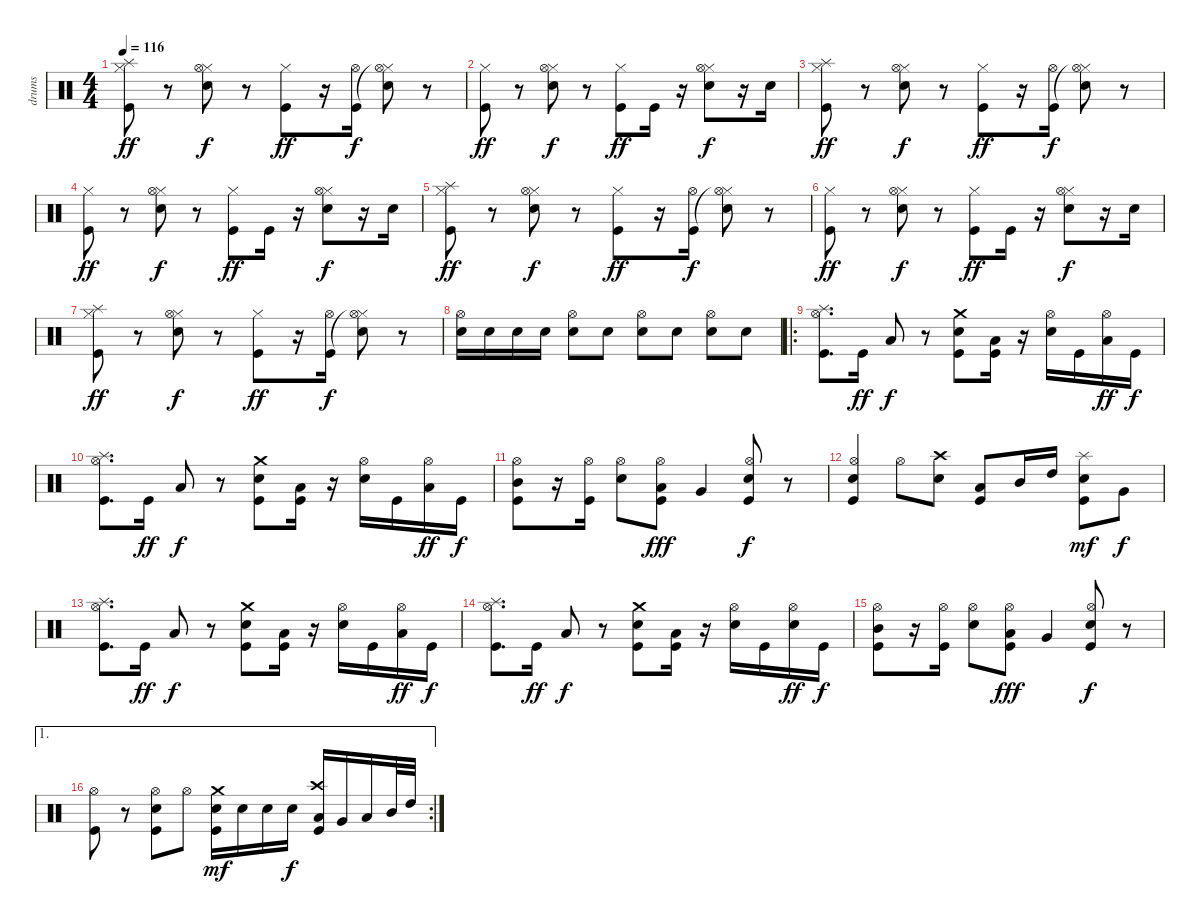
\track ("drums" "drums") {instrument percussion}
\staff {score}
\articulation defaults
\ts (4 4)
\tempo 116
\clef neutral
\ks c
("Hi-Hat (closed)" "Splash (hit)" "Kick (hit)").8{dy ff} r.8 ("Hi-Hat (closed)" "Hi-Hat (open)" "Electric Snare (hit)").8{dy f} r.8 ("Hi-Hat (closed)" "Kick (hit)").8{dy ff} r.16 ("Hi-Hat (open)" "Kick (hit)").16{dy f} ("Hi-Hat (closed)" "Hi-Hat (open)"{t} "Electric Snare (hit)").8 r.8 |
("Hi-Hat (closed)" "Kick (hit)").8{dy ff} r.8 ("Hi-Hat (closed)" "Hi-Hat (open)" "Electric Snare (hit)").8{dy f} r.8 ("Hi-Hat (closed)" "Kick (hit)").8{dy ff} "Kick (hit)".16 r.16 ("Hi-Hat (closed)" "Hi-Hat (open)" "Electric Snare (hit)").8{dy f} r.16 "Electric Snare (hit)".16 |
("Hi-Hat (closed)" "Splash (hit)" "Kick (hit)").8{dy ff} r.8 ("Hi-Hat (closed)" "Hi-Hat (open)" "Electric Snare (hit)").8{dy f} r.8 ("Hi-Hat (closed)" "Kick (hit)").8{dy ff} r.16 ("Hi-Hat (open)" "Kick (hit)").16{dy f} ("Hi-Hat (closed)" "Hi-Hat (open)"{t} "Electric Snare (hit)").8 r.8 |
("Hi-Hat (closed)" "Kick (hit)").8{dy ff} r.8 ("Hi-Hat (closed)" "Hi-Hat (open)" "Electric Snare (hit)").8{dy f} r.8 ("Hi-Hat (closed)" "Kick (hit)").8{dy ff} "Kick (hit)".16 r.16 ("Hi-Hat (closed)" "Hi-Hat (open)" "Electric Snare (hit)").8{dy f} r.16 "Electric Snare (hit)".16 |
("Hi-Hat (closed)" "Splash (hit)" "Kick (hit)").8{dy ff} r.8 ("Hi-Hat (closed)" "Hi-Hat (open)" "Electric Snare (hit)").8{dy f} r.8 ("Hi-Hat (closed)" "Kick (hit)").8{dy ff} r.16 ("Hi-Hat (open)" "Kick (hit)").16{dy f} ("Hi-Hat (closed)" "Hi-Hat (open)"{t} "Electric Snare (hit)").8 r.8 |
("Hi-Hat (closed)" "Kick (hit)").8{dy ff} r.8 ("Hi-Hat (closed)" "Hi-Hat (open)" "Electric Snare (hit)").8{dy f} r.8 ("Hi-Hat (closed)" "Kick (hit)").8{dy ff} "Kick (hit)".16 r.16 ("Hi-Hat (closed)" "Hi-Hat (open)" "Electric Snare (hit)").8{dy f} r.16 "Electric Snare (hit)".16 |
("Hi-Hat (closed)" "Splash (hit)" "Kick (hit)").8{dy ff} r.8 ("Hi-Hat (closed)" "Hi-Hat (open)" "Electric Snare (hit)").8{dy f} r.8 ("Hi-Hat (closed)" "Kick (hit)").8{dy ff} r.16 ("Hi-Hat (open)" "Kick (hit)").16{dy f} ("Hi-Hat (closed)" "Hi-Hat (open)"{t} "Electric Snare (hit)").8 r.8 |
("Hi-Hat (open)" "Electric Snare (hit)").16 "Electric Snare (hit)".16 "Electric Snare (hit)".16 "Electric Snare (hit)".16 ("Hi-Hat (open)" "Electric Snare (hit)").8 "Electric Snare (hit)".8 ("Hi-Hat (open)" "Electric Snare (hit)").8 "Electric Snare (hit)".8 ("Hi-Hat (open)" "Electric Snare (hit)").8 "Electric Snare (hit)".8 |
\ro
("Hi-Hat (open)" "Splash (hit)" "Kick (hit)").8{d} "Kick (hit)".16{dy ff} "Low Tom (hit)".8{dy f} r.8 ("Crash medium (hit)" "Electric Snare (hit)" "Kick (hit)").8 ("Low Tom (hit)" "Kick (hit)").16 r.16 ("Hi-Hat (open)" "Electric Snare (hit)").16 "Kick (hit)".16 ("Hi-Hat (open)" "Low Tom (hit)").16{dy ff} "Kick (hit)".16{dy f} |
("Hi-Hat (open)" "Splash (hit)" "Kick (hit)").8{d} "Kick (hit)".16{dy ff} "Low Tom (hit)".8{dy f} r.8 ("Crash medium (hit)" "Electric Snare (hit)" "Kick (hit)").8 ("Low Tom (hit)" "Kick (hit)").16 r.16 ("Hi-Hat (open)" "Electric Snare (hit)").16 "Kick (hit)".16 ("Hi-Hat (open)" "Low Tom (hit)").16{dy ff} "Kick (hit)".16{dy f} |
("Hi-Hat (open)" "Mid Tom (hit)" "Kick (hit)").8 r.16 ("Hi-Hat (open)" "Kick (hit)").16 ("Hi-Hat (open)" "Electric Snare (hit)").8 ("Hi-Hat (open)" "Low Tom (hit)" "Kick (hit)").8{dy fff} "Very Low Tom (hit)".4 ("Hi-Hat (open)" "Electric Snare (hit)" "Kick (hit)").8{dy f} r.8 |
("Electric Snare (hit)" "Hi-Hat (open)" "Kick (hit)").4 "Hi-Hat (open)".8 ("Crash high (hit)" "Electric Snare (hit)").8 ("Low Tom (hit)" "Kick (hit)").8 "Mid Tom (hit)".16 "High Tom (hit)".16 ("Splash (hit)" "Electric Snare (hit)" "Kick (hit)").8{dy mf} "Very Low Tom (hit)".8{dy f} |
("Hi-Hat (open)" "Splash (hit)" "Kick (hit)").8{d} "Kick (hit)".16{dy ff} "Low Tom (hit)".8{dy f} r.8 ("Crash medium (hit)" "Electric Snare (hit)" "Kick (hit)").8 ("Low Tom (hit)" "Kick (hit)").16 r.16 ("Hi-Hat (open)" "Electric Snare (hit)").16 "Kick (hit)".16 ("Hi-Hat (open)" "Low Tom (hit)").16{dy ff} "Kick (hit)".16{dy f} |
("Hi-Hat (open)" "Splash (hit)" "Kick (hit)").8{d} "Kick (hit)".16{dy ff} "Low Tom (hit)".8{dy f} r.8 ("Crash medium (hit)" "Electric Snare (hit)" "Kick (hit)").8 ("Low Tom (hit)" "Kick (hit)").16 r.16 ("Hi-Hat (open)" "Electric Snare (hit)").16 "Kick (hit)".16 ("Hi-Hat (open)" "Electric Snare (hit)").16{dy ff} "Kick (hit)".16{dy f} |
("Hi-Hat (open)" "Mid Tom (hit)" "Kick (hit)").8 r.16 ("Hi-Hat (open)" "Kick (hit)").16 ("Hi-Hat (open)" "Electric Snare (hit)").8 ("Hi-Hat (open)" "Low Tom (hit)" "Kick (hit)").8{dy fff} "Very Low Tom (hit)".4 ("Hi-Hat (open)" "Electric Snare (hit)" "Kick (hit)").8{dy f} r.8 |
\ae 1
\rc 2
("Hi-Hat (open)" "Kick (hit)").8 r.8 ("Hi-Hat (open)" "Electric Snare (hit)" "Kick (hit)").8 "Hi-Hat (open)".8 ("Crash medium (hit)" "Electric Snare (hit)" "Kick (hit)").16{dy mf} "Electric Snare (hit)".16 "Electric Snare (hit)".16 "Electric Snare (hit)".16{dy f} ("Crash high (hit)" "Low Floor Tom (hit)" "Kick (hit)").16 "Very Low Tom (hit)".16 "Low Tom (hit)".16 "Mid Tom (hit)".32 "High Tom (hit)".32
